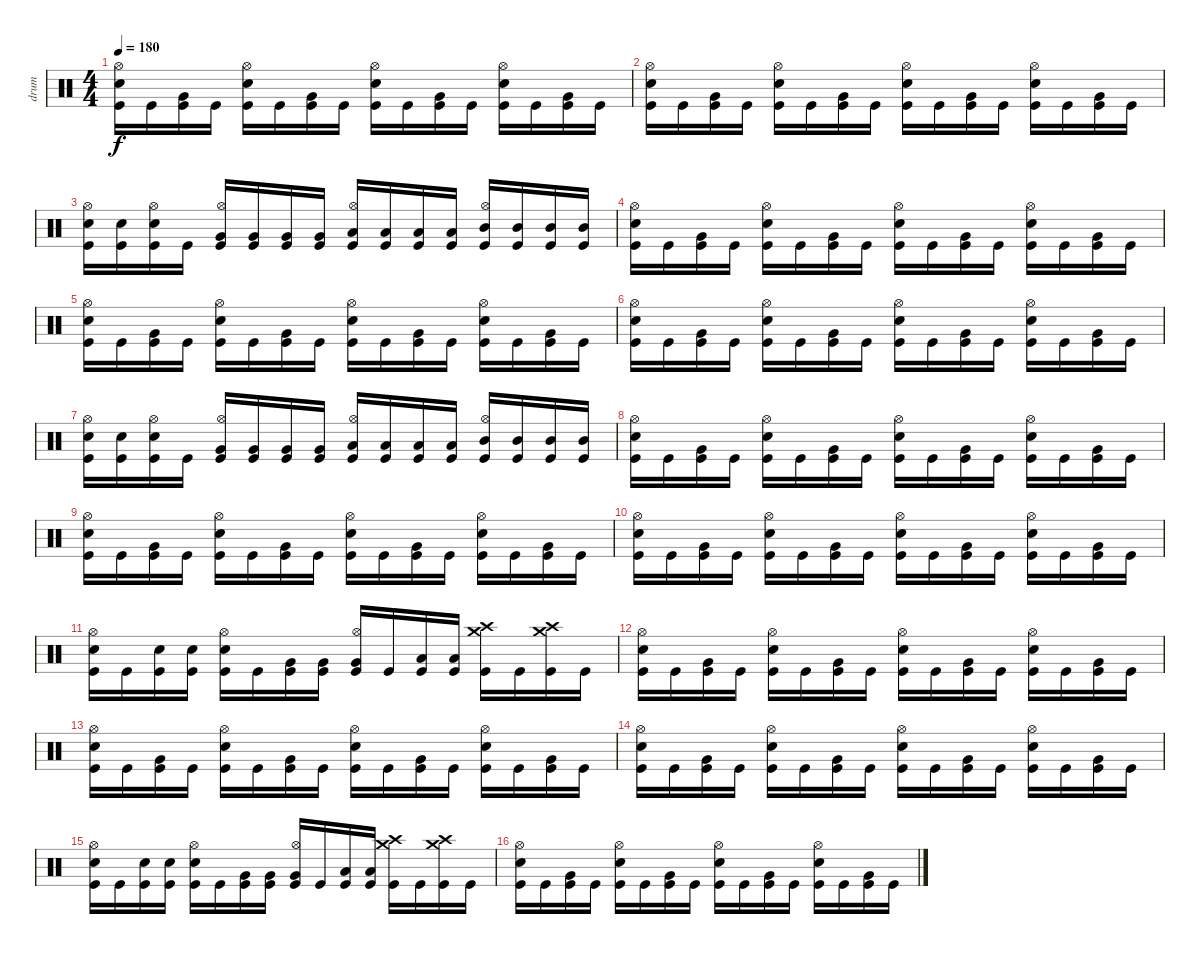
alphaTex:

\track ("drum" "drum") {instrument percussion}
\staff {score}
\articulation defaults
\ts (4 4)
\tempo 180
\clef neutral
\ks c
("Kick (hit)" "Snare (hit) 2" "Hi-Hat (open)").16{dy f} "Kick (hit)".16 ("Kick (hit)" "Very Low Tom (hit)").16 "Kick (hit)".16 ("Kick (hit)" "Snare (hit) 2" "Hi-Hat (open)").16 "Kick (hit)".16 ("Kick (hit)" "Very Low Tom (hit)").16 "Kick (hit)".16 ("Kick (hit)" "Snare (hit) 2" "Hi-Hat (open)").16 "Kick (hit)".16 ("Kick (hit)" "Very Low Tom (hit)").16 "Kick (hit)".16 ("Kick (hit)" "Snare (hit) 2" "Hi-Hat (open)").16 "Kick (hit)".16 ("Kick (hit)" "Very Low Tom (hit)").16 "Kick (hit)".16 |
("Kick (hit)" "Snare (hit) 2" "Hi-Hat (open)").16 "Kick (hit)".16 ("Kick (hit)" "Very Low Tom (hit)").16 "Kick (hit)".16 ("Kick (hit)" "Snare (hit) 2" "Hi-Hat (open)").16 "Kick (hit)".16 ("Kick (hit)" "Very Low Tom (hit)").16 "Kick (hit)".16 ("Kick (hit)" "Snare (hit) 2" "Hi-Hat (open)").16 "Kick (hit)".16 ("Kick (hit)" "Very Low Tom (hit)").16 "Kick (hit)".16 ("Kick (hit)" "Snare (hit) 2" "Hi-Hat (open)").16 "Kick (hit)".16 ("Kick (hit)" "Very Low Tom (hit)").16 "Kick (hit)".16 |
("Kick (hit)" "Snare (hit) 2" "Hi-Hat (open)").16 ("Kick (hit)" "Snare (hit) 2").16 ("Kick (hit)" "Snare (hit) 2" "Hi-Hat (open)").16 "Kick (hit)".16 ("Kick (hit)" "Very Low Tom (hit)" "Hi-Hat (open)").16 ("Kick (hit)" "Very Low Tom (hit)").16 ("Kick (hit)" "Very Low Tom (hit)").16 ("Kick (hit)" "Very Low Tom (hit)").16 ("Kick (hit)" "Low Tom (hit)" "Hi-Hat (open)").16 ("Kick (hit)" "Low Tom (hit)").16 ("Kick (hit)" "Low Tom (hit)").16 ("Kick (hit)" "Low Tom (hit)").16 ("Kick (hit)" "Mid Tom (hit)" "Hi-Hat (open)").16 ("Kick (hit)" "Mid Tom (hit)").16 ("Kick (hit)" "Mid Tom (hit)").16 ("Kick (hit)" "Mid Tom (hit)").16 |
("Kick (hit)" "Snare (hit) 2" "Hi-Hat (open)").16 "Kick (hit)".16 ("Kick (hit)" "Very Low Tom (hit)").16 "Kick (hit)".16 ("Kick (hit)" "Snare (hit) 2" "Hi-Hat (open)").16 "Kick (hit)".16 ("Kick (hit)" "Very Low Tom (hit)").16 "Kick (hit)".16 ("Kick (hit)" "Snare (hit) 2" "Hi-Hat (open)").16 "Kick (hit)".16 ("Kick (hit)" "Very Low Tom (hit)").16 "Kick (hit)".16 ("Kick (hit)" "Snare (hit) 2" "Hi-Hat (open)").16 "Kick (hit)".16 ("Kick (hit)" "Very Low Tom (hit)").16 "Kick (hit)".16 |
("Kick (hit)" "Snare (hit) 2" "Hi-Hat (open)").16 "Kick (hit)".16 ("Kick (hit)" "Very Low Tom (hit)").16 "Kick (hit)".16 ("Kick (hit)" "Snare (hit) 2" "Hi-Hat (open)").16 "Kick (hit)".16 ("Kick (hit)" "Very Low Tom (hit)").16 "Kick (hit)".16 ("Kick (hit)" "Snare (hit) 2" "Hi-Hat (open)").16 "Kick (hit)".16 ("Kick (hit)" "Very Low Tom (hit)").16 "Kick (hit)".16 ("Kick (hit)" "Snare (hit) 2" "Hi-Hat (open)").16 "Kick (hit)".16 ("Kick (hit)" "Very Low Tom (hit)").16 "Kick (hit)".16 |
("Kick (hit)" "Snare (hit) 2" "Hi-Hat (open)").16 "Kick (hit)".16 ("Kick (hit)" "Very Low Tom (hit)").16 "Kick (hit)".16 ("Kick (hit)" "Snare (hit) 2" "Hi-Hat (open)").16 "Kick (hit)".16 ("Kick (hit)" "Very Low Tom (hit)").16 "Kick (hit)".16 ("Kick (hit)" "Snare (hit) 2" "Hi-Hat (open)").16 "Kick (hit)".16 ("Kick (hit)" "Very Low Tom (hit)").16 "Kick (hit)".16 ("Kick (hit)" "Snare (hit) 2" "Hi-Hat (open)").16 "Kick (hit)".16 ("Kick (hit)" "Very Low Tom (hit)").16 "Kick (hit)".16 |
("Kick (hit)" "Snare (hit) 2" "Hi-Hat (open)").16 ("Kick (hit)" "Snare (hit) 2").16 ("Kick (hit)" "Snare (hit) 2" "Hi-Hat (open)").16 "Kick (hit)".16 ("Kick (hit)" "Very Low Tom (hit)" "Hi-Hat (open)").16 ("Kick (hit)" "Very Low Tom (hit)").16 ("Kick (hit)" "Very Low Tom (hit)").16 ("Kick (hit)" "Very Low Tom (hit)").16 ("Kick (hit)" "Low Tom (hit)" "Hi-Hat (open)").16 ("Kick (hit)" "Low Tom (hit)").16 ("Kick (hit)" "Low Tom (hit)").16 ("Kick (hit)" "Low Tom (hit)").16 ("Kick (hit)" "Mid Tom (hit)" "Hi-Hat (open)").16 ("Kick (hit)" "Mid Tom (hit)").16 ("Kick (hit)" "Mid Tom (hit)").16 ("Kick (hit)" "Mid Tom (hit)").16 |
("Kick (hit)" "Snare (hit) 2" "Hi-Hat (open)").16 "Kick (hit)".16 ("Kick (hit)" "Very Low Tom (hit)").16 "Kick (hit)".16 ("Kick (hit)" "Snare (hit) 2" "Hi-Hat (open)").16 "Kick (hit)".16 ("Kick (hit)" "Very Low Tom (hit)").16 "Kick (hit)".16 ("Kick (hit)" "Snare (hit) 2" "Hi-Hat (open)").16 "Kick (hit)".16 ("Kick (hit)" "Very Low Tom (hit)").16 "Kick (hit)".16 ("Kick (hit)" "Snare (hit) 2" "Hi-Hat (open)").16 "Kick (hit)".16 ("Kick (hit)" "Very Low Tom (hit)").16 "Kick (hit)".16 |
("Kick (hit)" "Snare (hit) 2" "Hi-Hat (open)").16 "Kick (hit)".16 ("Kick (hit)" "Very Low Tom (hit)").16 "Kick (hit)".16 ("Kick (hit)" "Snare (hit) 2" "Hi-Hat (open)").16 "Kick (hit)".16 ("Kick (hit)" "Very Low Tom (hit)").16 "Kick (hit)".16 ("Kick (hit)" "Snare (hit) 2" "Hi-Hat (open)").16 "Kick (hit)".16 ("Kick (hit)" "Very Low Tom (hit)").16 "Kick (hit)".16 ("Kick (hit)" "Snare (hit) 2" "Hi-Hat (open)").16 "Kick (hit)".16 ("Kick (hit)" "Very Low Tom (hit)").16 "Kick (hit)".16 |
("Kick (hit)" "Snare (hit) 2" "Hi-Hat (open)").16 "Kick (hit)".16 ("Kick (hit)" "Very Low Tom (hit)").16 "Kick (hit)".16 ("Kick (hit)" "Snare (hit) 2" "Hi-Hat (open)").16 "Kick (hit)".16 ("Kick (hit)" "Very Low Tom (hit)").16 "Kick (hit)".16 ("Kick (hit)" "Snare (hit) 2" "Hi-Hat (open)").16 "Kick (hit)".16 ("Kick (hit)" "Very Low Tom (hit)").16 "Kick (hit)".16 ("Kick (hit)" "Snare (hit) 2" "Hi-Hat (open)").16 "Kick (hit)".16 ("Kick (hit)" "Very Low Tom (hit)").16 "Kick (hit)".16 |
("Kick (hit)" "Snare (hit) 2" "Hi-Hat (open)").16 "Kick (hit)".16 ("Kick (hit)" "Snare (hit) 2").16 ("Kick (hit)" "Snare (hit) 2").16 ("Kick (hit)" "Snare (hit) 2" "Hi-Hat (open)").16 "Kick (hit)".16 ("Kick (hit)" "Very Low Tom (hit)").16 ("Kick (hit)" "Very Low Tom (hit)").16 ("Kick (hit)" "Very Low Tom (hit)" "Hi-Hat (open)").16 "Kick (hit)".16 ("Kick (hit)" "Low Tom (hit)").16 ("Kick (hit)" "Low Tom (hit)").16 ("Kick (hit)" "Crash high (hit)" "Crash medium (hit)").16 "Kick (hit)".16 ("Kick (hit)" "Crash high (hit)" "Crash medium (hit)").16 "Kick (hit)".16 |
("Kick (hit)" "Snare (hit) 2" "Hi-Hat (open)").16 "Kick (hit)".16 ("Kick (hit)" "Very Low Tom (hit)").16 "Kick (hit)".16 ("Kick (hit)" "Snare (hit) 2" "Hi-Hat (open)").16 "Kick (hit)".16 ("Kick (hit)" "Very Low Tom (hit)").16 "Kick (hit)".16 ("Kick (hit)" "Snare (hit) 2" "Hi-Hat (open)").16 "Kick (hit)".16 ("Kick (hit)" "Very Low Tom (hit)").16 "Kick (hit)".16 ("Kick (hit)" "Snare (hit) 2" "Hi-Hat (open)").16 "Kick (hit)".16 ("Kick (hit)" "Very Low Tom (hit)").16 "Kick (hit)".16 |
("Kick (hit)" "Snare (hit) 2" "Hi-Hat (open)").16 "Kick (hit)".16 ("Kick (hit)" "Very Low Tom (hit)").16 "Kick (hit)".16 ("Kick (hit)" "Snare (hit) 2" "Hi-Hat (open)").16 "Kick (hit)".16 ("Kick (hit)" "Very Low Tom (hit)").16 "Kick (hit)".16 ("Kick (hit)" "Snare (hit) 2" "Hi-Hat (open)").16 "Kick (hit)".16 ("Kick (hit)" "Very Low Tom (hit)").16 "Kick (hit)".16 ("Kick (hit)" "Snare (hit) 2" "Hi-Hat (open)").16 "Kick (hit)".16 ("Kick (hit)" "Very Low Tom (hit)").16 "Kick (hit)".16 |
("Kick (hit)" "Snare (hit) 2" "Hi-Hat (open)").16 "Kick (hit)".16 ("Kick (hit)" "Very Low Tom (hit)").16 "Kick (hit)".16 ("Kick (hit)" "Snare (hit) 2" "Hi-Hat (open)").16 "Kick (hit)".16 ("Kick (hit)" "Very Low Tom (hit)").16 "Kick (hit)".16 ("Kick (hit)" "Snare (hit) 2" "Hi-Hat (open)").16 "Kick (hit)".16 ("Kick (hit)" "Very Low Tom (hit)").16 "Kick (hit)".16 ("Kick (hit)" "Snare (hit) 2" "Hi-Hat (open)").16 "Kick (hit)".16 ("Kick (hit)" "Very Low Tom (hit)").16 "Kick (hit)".16 |
("Kick (hit)" "Snare (hit) 2" "Hi-Hat (open)").16 "Kick (hit)".16 ("Kick (hit)" "Snare (hit) 2").16 ("Kick (hit)" "Snare (hit) 2").16 ("Kick (hit)" "Snare (hit) 2" "Hi-Hat (open)").16 "Kick (hit)".16 ("Kick (hit)" "Very Low Tom (hit)").16 ("Kick (hit)" "Very Low Tom (hit)").16 ("Kick (hit)" "Very Low Tom (hit)" "Hi-Hat (open)").16 "Kick (hit)".16 ("Kick (hit)" "Low Tom (hit)").16 ("Kick (hit)" "Low Tom (hit)").16 ("Kick (hit)" "Crash high (hit)" "Crash medium (hit)").16 "Kick (hit)".16 ("Kick (hit)" "Crash high (hit)" "Crash medium (hit)").16 "Kick (hit)".16 |
("Kick (hit)" "Snare (hit) 2" "Hi-Hat (open)").16 "Kick (hit)".16 ("Kick (hit)" "Very Low Tom (hit)").16 "Kick (hit)".16 ("Kick (hit)" "Snare (hit) 2" "Hi-Hat (open)").16 "Kick (hit)".16 ("Kick (hit)" "Very Low Tom (hit)").16 "Kick (hit)".16 ("Kick (hit)" "Snare (hit) 2" "Hi-Hat (open)").16 "Kick (hit)".16 ("Kick (hit)" "Very Low Tom (hit)").16 "Kick (hit)".16 ("Kick (hit)" "Snare (hit) 2" "Hi-Hat (open)").16 "Kick (hit)".16 ("Kick (hit)" "Very Low Tom (hit)").16 "Kick (hit)".16
